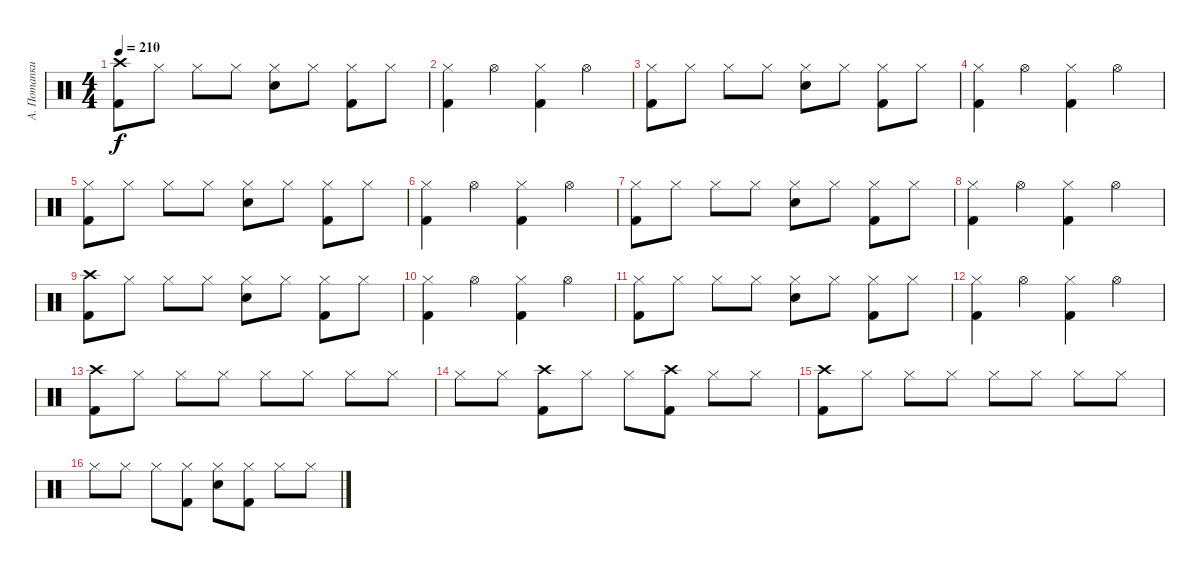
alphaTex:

\track ("А. Потапкин" "А. Потапки") {instrument percussion}
\staff {score}
\articulation defaults
\ts (4 4)
\tempo 210
\clef neutral
\ks c
("Crash high (hit)" "Kick (hit) 2").8{dy f} "Hi-Hat (closed)".8 "Hi-Hat (closed)".8 "Hi-Hat (closed)".8 ("Hi-Hat (closed)" "Snare (hit) 2").8 "Hi-Hat (closed)".8 ("Hi-Hat (closed)" "Kick (hit) 2").8 "Hi-Hat (closed)".8 |
("Hi-Hat (closed)" "Kick (hit) 2").4 "Hi-Hat (open)".4 ("Hi-Hat (closed)" "Kick (hit) 2").4 "Hi-Hat (open)".4 |
("Hi-Hat (closed)" "Kick (hit) 2").8 "Hi-Hat (closed)".8 "Hi-Hat (closed)".8 "Hi-Hat (closed)".8 ("Hi-Hat (closed)" "Snare (hit) 2").8 "Hi-Hat (closed)".8 ("Hi-Hat (closed)" "Kick (hit) 2").8 "Hi-Hat (closed)".8 |
("Hi-Hat (closed)" "Kick (hit) 2").4 "Hi-Hat (open)".4 ("Hi-Hat (closed)" "Kick (hit) 2").4 "Hi-Hat (open)".4 |
("Hi-Hat (closed)" "Kick (hit) 2").8 "Hi-Hat (closed)".8 "Hi-Hat (closed)".8 "Hi-Hat (closed)".8 ("Hi-Hat (closed)" "Snare (hit) 2").8 "Hi-Hat (closed)".8 ("Hi-Hat (closed)" "Kick (hit) 2").8 "Hi-Hat (closed)".8 |
("Hi-Hat (closed)" "Kick (hit) 2").4 "Hi-Hat (open)".4 ("Hi-Hat (closed)" "Kick (hit) 2").4 "Hi-Hat (open)".4 |
("Hi-Hat (closed)" "Kick (hit) 2").8 "Hi-Hat (closed)".8 "Hi-Hat (closed)".8 "Hi-Hat (closed)".8 ("Hi-Hat (closed)" "Snare (hit) 2").8 "Hi-Hat (closed)".8 ("Hi-Hat (closed)" "Kick (hit) 2").8 "Hi-Hat (closed)".8 |
("Hi-Hat (closed)" "Kick (hit) 2").4 "Hi-Hat (open)".4 ("Hi-Hat (closed)" "Kick (hit) 2").4 "Hi-Hat (open)".4 |
("Crash high (hit)" "Kick (hit) 2").8 "Hi-Hat (closed)".8 "Hi-Hat (closed)".8 "Hi-Hat (closed)".8 ("Hi-Hat (closed)" "Snare (hit) 2").8 "Hi-Hat (closed)".8 ("Hi-Hat (closed)" "Kick (hit) 2").8 "Hi-Hat (closed)".8 |
("Hi-Hat (closed)" "Kick (hit) 2").4 "Hi-Hat (open)".4 ("Hi-Hat (closed)" "Kick (hit) 2").4 "Hi-Hat (open)".4 |
("Hi-Hat (closed)" "Kick (hit) 2").8 "Hi-Hat (closed)".8 "Hi-Hat (closed)".8 "Hi-Hat (closed)".8 ("Hi-Hat (closed)" "Snare (hit) 2").8 "Hi-Hat (closed)".8 ("Hi-Hat (closed)" "Kick (hit) 2").8 "Hi-Hat (closed)".8 |
("Hi-Hat (closed)" "Kick (hit) 2").4 "Hi-Hat (open)".4 ("Hi-Hat (closed)" "Kick (hit) 2").4 "Hi-Hat (open)".4 |
("Crash high (hit)" "Kick (hit) 2").8 "Hi-Hat (closed)".8 "Hi-Hat (closed)".8 "Hi-Hat (closed)".8 "Hi-Hat (closed)".8 "Hi-Hat (closed)".8 "Hi-Hat (closed)".8 "Hi-Hat (closed)".8 |
"Hi-Hat (closed)".8 "Hi-Hat (closed)".8 ("Crash high (hit)" "Kick (hit) 2").8 "Hi-Hat (closed)".8 "Hi-Hat (closed)".8 ("Crash high (hit)" "Kick (hit) 2").8 "Hi-Hat (closed)".8 "Hi-Hat (closed)".8 |
("Crash high (hit)" "Kick (hit) 2").8 "Hi-Hat (closed)".8 "Hi-Hat (closed)".8 "Hi-Hat (closed)".8 "Hi-Hat (closed)".8 "Hi-Hat (closed)".8 "Hi-Hat (closed)".8 "Hi-Hat (closed)".8 |
"Hi-Hat (closed)".8 "Hi-Hat (closed)".8 "Hi-Hat (closed)".8 ("Hi-Hat (closed)" "Kick (hit) 2").8 ("Hi-Hat (closed)" "Electric Snare (hit)").8 ("Hi-Hat (closed)" "Kick (hit) 2").8 "Hi-Hat (closed)".8 "Hi-Hat (closed)".8
